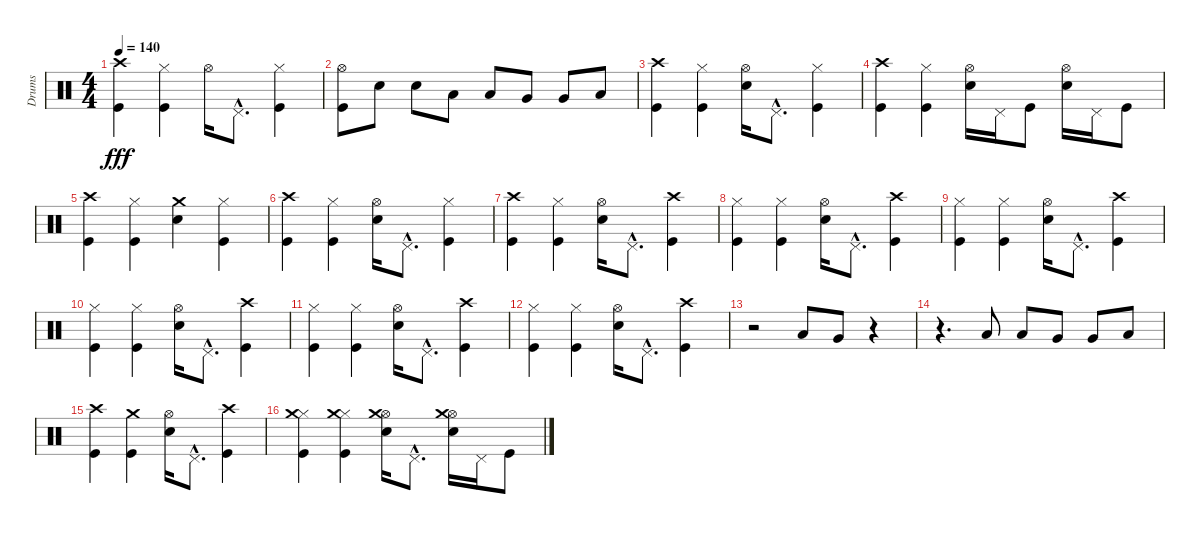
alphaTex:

\track ("Drums" "Drums") {instrument percussion}
\staff {score}
\articulation defaults
\ts (4 4)
\tempo 140
\clef neutral
\ks c
("Crash high (hit)" "Kick (hit)").4{dy fff} ("Hi-Hat (closed)" "Kick (hit)").4 "Hi-Hat (open)".16 "Pedal Hi-Hat (hit)"{hac}.8{d} ("Hi-Hat (closed)" "Kick (hit)").4 |
("Hi-Hat (open)" "Kick (hit)").8 "Electric Snare (hit)".8 "Electric Snare (hit)".8 "Low Tom (hit)".8 "Low Tom (hit)".8 "Very Low Tom (hit)".8 "Very Low Tom (hit)".8 "Low Floor Tom (hit)".8 |
("Crash high (hit)" "Kick (hit)").4 ("Hi-Hat (closed)" "Kick (hit)").4 ("Hi-Hat (open)" "Electric Snare (hit)").16 "Pedal Hi-Hat (hit)"{hac}.8{d} ("Hi-Hat (closed)" "Kick (hit)").4 |
("Crash high (hit)" "Kick (hit)").4 ("Hi-Hat (closed)" "Kick (hit)").4 ("Hi-Hat (open)" "Electric Snare (hit)").16 "Pedal Hi-Hat (hit)".16 "Kick (hit)".8 ("Hi-Hat (open)" "Electric Snare (hit)").16 "Pedal Hi-Hat (hit)".16 "Kick (hit)".8 |
("Crash high (hit)" "Kick (hit)").4 ("Hi-Hat (closed)" "Kick (hit)").4 ("Crash medium (hit)" "Electric Snare (hit)").4 ("Hi-Hat (closed)" "Kick (hit)").4 |
("Crash high (hit)" "Kick (hit)").4 ("Hi-Hat (closed)" "Kick (hit)").4 ("Hi-Hat (open)" "Electric Snare (hit)").16 "Pedal Hi-Hat (hit)"{hac}.8{d} ("Hi-Hat (closed)" "Kick (hit)").4 |
("Crash high (hit)" "Kick (hit)").4 ("Hi-Hat (closed)" "Kick (hit)").4 ("Hi-Hat (open)" "Electric Snare (hit)").16 "Pedal Hi-Hat (hit)"{hac}.8{d} ("Crash high (hit)" "Kick (hit)").4 |
("Hi-Hat (closed)" "Kick (hit)").4 ("Hi-Hat (closed)" "Kick (hit)").4 ("Hi-Hat (open)" "Electric Snare (hit)").16 "Pedal Hi-Hat (hit)"{hac}.8{d} ("Crash high (hit)" "Kick (hit)").4 |
("Hi-Hat (closed)" "Kick (hit)").4 ("Hi-Hat (closed)" "Kick (hit)").4 ("Hi-Hat (open)" "Electric Snare (hit)").16 "Pedal Hi-Hat (hit)"{hac}.8{d} ("Crash high (hit)" "Kick (hit)").4 |
("Hi-Hat (closed)" "Kick (hit)").4 ("Hi-Hat (closed)" "Kick (hit)").4 ("Hi-Hat (open)" "Electric Snare (hit)").16 "Pedal Hi-Hat (hit)"{hac}.8{d} ("Crash high (hit)" "Kick (hit)").4 |
("Hi-Hat (closed)" "Kick (hit)").4 ("Hi-Hat (closed)" "Kick (hit)").4 ("Hi-Hat (open)" "Electric Snare (hit)").16 "Pedal Hi-Hat (hit)"{hac}.8{d} ("Crash high (hit)" "Kick (hit)").4 |
("Hi-Hat (closed)" "Kick (hit)").4 ("Hi-Hat (closed)" "Kick (hit)").4 ("Hi-Hat (open)" "Electric Snare (hit)").16 "Pedal Hi-Hat (hit)"{hac}.8{d} ("Crash high (hit)" "Kick (hit)").4 |
r.2 "Low Tom (hit)".8 "Very Low Tom (hit)".8 r.4 |
r.4{d} "Low Tom (hit)".8 "Low Tom (hit)".8 "Very Low Tom (hit)".8 "Very Low Tom (hit)".8 "Low Floor Tom (hit)".8 |
("Crash high (hit)" "Kick (hit)").4 ("Crash medium (hit)" "Kick (hit)").4 ("Hi-Hat (open)" "Electric Snare (hit)").16 "Pedal Hi-Hat (hit)"{hac}.8{d} ("Crash high (hit)" "Kick (hit)").4 |
("Hi-Hat (closed)" "Crash medium (hit)" "Kick (hit)").4 ("Hi-Hat (closed)" "Crash medium (hit)" "Kick (hit)").4 ("Hi-Hat (open)" "Crash medium (hit)" "Electric Snare (hit)").16 "Pedal Hi-Hat (hit)"{hac}.8{d} ("Hi-Hat (open)" "Crash medium (hit)" "Electric Snare (hit)").16 "Pedal Hi-Hat (hit)".16 "Kick (hit)".8
